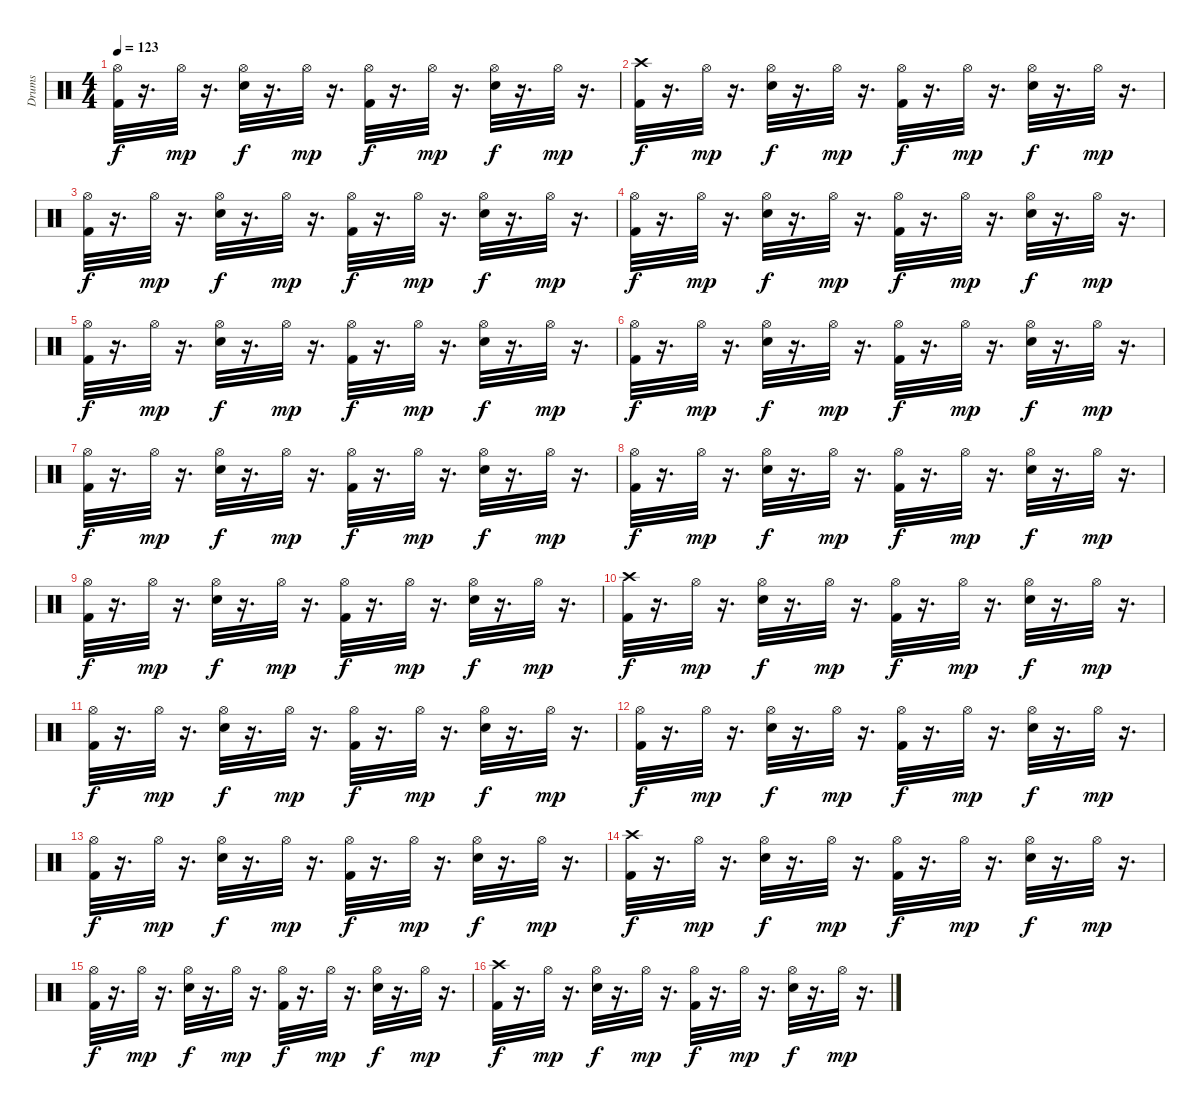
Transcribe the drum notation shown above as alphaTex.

\track ("Drums" "Drums") {instrument percussion}
\staff {score}
\articulation defaults
\ts (4 4)
\tempo 123
\clef neutral
\ks c
("Hi-Hat (open)" "Kick (hit) 2").32{dy f} r.16{d} "Hi-Hat (open)".32{dy mp} r.16{d} ("Hi-Hat (open)" "Electric Snare (hit)").32{dy f} r.16{d} "Hi-Hat (open)".32{dy mp} r.16{d} ("Hi-Hat (open)" "Kick (hit) 2").32{dy f} r.16{d} "Hi-Hat (open)".32{dy mp} r.16{d} ("Hi-Hat (open)" "Electric Snare (hit)").32{dy f} r.16{d} "Hi-Hat (open)".32{dy mp} r.16{d} |
("Crash high (hit)" "Kick (hit) 2").32{dy f} r.16{d} "Hi-Hat (open)".32{dy mp} r.16{d} ("Hi-Hat (open)" "Electric Snare (hit)").32{dy f} r.16{d} "Hi-Hat (open)".32{dy mp} r.16{d} ("Kick (hit) 2" "Hi-Hat (open)").32{dy f} r.16{d} "Hi-Hat (open)".32{dy mp} r.16{d} ("Hi-Hat (open)" "Electric Snare (hit)").32{dy f} r.16{d} "Hi-Hat (open)".32{dy mp} r.16{d} |
("Hi-Hat (open)" "Kick (hit) 2").32{dy f} r.16{d} "Hi-Hat (open)".32{dy mp} r.16{d} ("Hi-Hat (open)" "Electric Snare (hit)").32{dy f} r.16{d} "Hi-Hat (open)".32{dy mp} r.16{d} ("Hi-Hat (open)" "Kick (hit) 2").32{dy f} r.16{d} "Hi-Hat (open)".32{dy mp} r.16{d} ("Hi-Hat (open)" "Electric Snare (hit)").32{dy f} r.16{d} "Hi-Hat (open)".32{dy mp} r.16{d} |
("Hi-Hat (open)" "Kick (hit) 2").32{dy f} r.16{d} "Hi-Hat (open)".32{dy mp} r.16{d} ("Hi-Hat (open)" "Electric Snare (hit)").32{dy f} r.16{d} "Hi-Hat (open)".32{dy mp} r.16{d} ("Hi-Hat (open)" "Kick (hit) 2").32{dy f} r.16{d} "Hi-Hat (open)".32{dy mp} r.16{d} ("Hi-Hat (open)" "Electric Snare (hit)").32{dy f} r.16{d} "Hi-Hat (open)".32{dy mp} r.16{d} |
("Hi-Hat (open)" "Kick (hit) 2").32{dy f} r.16{d} "Hi-Hat (open)".32{dy mp} r.16{d} ("Hi-Hat (open)" "Electric Snare (hit)").32{dy f} r.16{d} "Hi-Hat (open)".32{dy mp} r.16{d} ("Hi-Hat (open)" "Kick (hit) 2").32{dy f} r.16{d} "Hi-Hat (open)".32{dy mp} r.16{d} ("Hi-Hat (open)" "Electric Snare (hit)").32{dy f} r.16{d} "Hi-Hat (open)".32{dy mp} r.16{d} |
("Hi-Hat (open)" "Kick (hit) 2").32{dy f} r.16{d} "Hi-Hat (open)".32{dy mp} r.16{d} ("Hi-Hat (open)" "Electric Snare (hit)").32{dy f} r.16{d} "Hi-Hat (open)".32{dy mp} r.16{d} ("Hi-Hat (open)" "Kick (hit) 2").32{dy f} r.16{d} "Hi-Hat (open)".32{dy mp} r.16{d} ("Hi-Hat (open)" "Electric Snare (hit)").32{dy f} r.16{d} "Hi-Hat (open)".32{dy mp} r.16{d} |
("Hi-Hat (open)" "Kick (hit) 2").32{dy f} r.16{d} "Hi-Hat (open)".32{dy mp} r.16{d} ("Hi-Hat (open)" "Electric Snare (hit)").32{dy f} r.16{d} "Hi-Hat (open)".32{dy mp} r.16{d} ("Hi-Hat (open)" "Kick (hit) 2").32{dy f} r.16{d} "Hi-Hat (open)".32{dy mp} r.16{d} ("Hi-Hat (open)" "Electric Snare (hit)").32{dy f} r.16{d} "Hi-Hat (open)".32{dy mp} r.16{d} |
("Hi-Hat (open)" "Kick (hit) 2").32{dy f} r.16{d} "Hi-Hat (open)".32{dy mp} r.16{d} ("Hi-Hat (open)" "Electric Snare (hit)").32{dy f} r.16{d} "Hi-Hat (open)".32{dy mp} r.16{d} ("Hi-Hat (open)" "Kick (hit) 2").32{dy f} r.16{d} "Hi-Hat (open)".32{dy mp} r.16{d} ("Hi-Hat (open)" "Electric Snare (hit)").32{dy f} r.16{d} "Hi-Hat (open)".32{dy mp} r.16{d} |
("Hi-Hat (open)" "Kick (hit) 2").32{dy f} r.16{d} "Hi-Hat (open)".32{dy mp} r.16{d} ("Hi-Hat (open)" "Electric Snare (hit)").32{dy f} r.16{d} "Hi-Hat (open)".32{dy mp} r.16{d} ("Hi-Hat (open)" "Kick (hit) 2").32{dy f} r.16{d} "Hi-Hat (open)".32{dy mp} r.16{d} ("Hi-Hat (open)" "Electric Snare (hit)").32{dy f} r.16{d} "Hi-Hat (open)".32{dy mp} r.16{d} |
("Crash high (hit)" "Kick (hit) 2").32{dy f} r.16{d} "Hi-Hat (open)".32{dy mp} r.16{d} ("Hi-Hat (open)" "Electric Snare (hit)").32{dy f} r.16{d} "Hi-Hat (open)".32{dy mp} r.16{d} ("Kick (hit) 2" "Hi-Hat (open)").32{dy f} r.16{d} "Hi-Hat (open)".32{dy mp} r.16{d} ("Hi-Hat (open)" "Electric Snare (hit)").32{dy f} r.16{d} "Hi-Hat (open)".32{dy mp} r.16{d} |
("Hi-Hat (open)" "Kick (hit) 2").32{dy f} r.16{d} "Hi-Hat (open)".32{dy mp} r.16{d} ("Hi-Hat (open)" "Electric Snare (hit)").32{dy f} r.16{d} "Hi-Hat (open)".32{dy mp} r.16{d} ("Hi-Hat (open)" "Kick (hit) 2").32{dy f} r.16{d} "Hi-Hat (open)".32{dy mp} r.16{d} ("Hi-Hat (open)" "Electric Snare (hit)").32{dy f} r.16{d} "Hi-Hat (open)".32{dy mp} r.16{d} |
("Hi-Hat (open)" "Kick (hit) 2").32{dy f} r.16{d} "Hi-Hat (open)".32{dy mp} r.16{d} ("Hi-Hat (open)" "Electric Snare (hit)").32{dy f} r.16{d} "Hi-Hat (open)".32{dy mp} r.16{d} ("Hi-Hat (open)" "Kick (hit) 2").32{dy f} r.16{d} "Hi-Hat (open)".32{dy mp} r.16{d} ("Hi-Hat (open)" "Electric Snare (hit)").32{dy f} r.16{d} "Hi-Hat (open)".32{dy mp} r.16{d} |
("Hi-Hat (open)" "Kick (hit) 2").32{dy f} r.16{d} "Hi-Hat (open)".32{dy mp} r.16{d} ("Hi-Hat (open)" "Electric Snare (hit)").32{dy f} r.16{d} "Hi-Hat (open)".32{dy mp} r.16{d} ("Hi-Hat (open)" "Kick (hit) 2").32{dy f} r.16{d} "Hi-Hat (open)".32{dy mp} r.16{d} ("Hi-Hat (open)" "Electric Snare (hit)").32{dy f} r.16{d} "Hi-Hat (open)".32{dy mp} r.16{d} |
("Crash high (hit)" "Kick (hit) 2").32{dy f} r.16{d} "Hi-Hat (open)".32{dy mp} r.16{d} ("Hi-Hat (open)" "Electric Snare (hit)").32{dy f} r.16{d} "Hi-Hat (open)".32{dy mp} r.16{d} ("Kick (hit) 2" "Hi-Hat (open)").32{dy f} r.16{d} "Hi-Hat (open)".32{dy mp} r.16{d} ("Hi-Hat (open)" "Electric Snare (hit)").32{dy f} r.16{d} "Hi-Hat (open)".32{dy mp} r.16{d} |
("Hi-Hat (open)" "Kick (hit) 2").32{dy f} r.16{d} "Hi-Hat (open)".32{dy mp} r.16{d} ("Hi-Hat (open)" "Electric Snare (hit)").32{dy f} r.16{d} "Hi-Hat (open)".32{dy mp} r.16{d} ("Hi-Hat (open)" "Kick (hit) 2").32{dy f} r.16{d} "Hi-Hat (open)".32{dy mp} r.16{d} ("Hi-Hat (open)" "Electric Snare (hit)").32{dy f} r.16{d} "Hi-Hat (open)".32{dy mp} r.16{d} |
("Crash high (hit)" "Kick (hit) 2").32{dy f} r.16{d} "Hi-Hat (open)".32{dy mp} r.16{d} ("Hi-Hat (open)" "Electric Snare (hit)").32{dy f} r.16{d} "Hi-Hat (open)".32{dy mp} r.16{d} ("Hi-Hat (open)" "Kick (hit) 2").32{dy f} r.16{d} "Hi-Hat (open)".32{dy mp} r.16{d} ("Hi-Hat (open)" "Electric Snare (hit)").32{dy f} r.16{d} "Hi-Hat (open)".32{dy mp} r.16{d}
